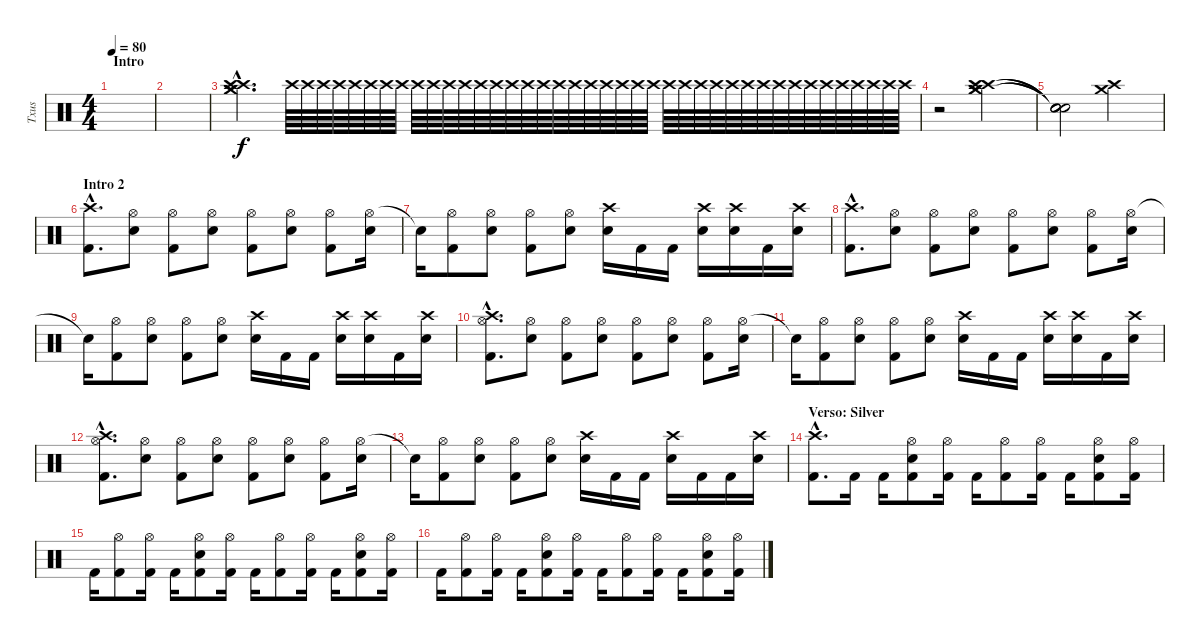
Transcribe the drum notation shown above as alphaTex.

\track ("Txus" "Txus") {instrument percussion}
\staff {score}
\articulation defaults
\ts (4 4)
\section ("" "Intro")
\tempo 80
\clef neutral
\ks c
|
|
("Crash high (hit)"{hac} "Crash medium (hit)"{hac} "Crash high (hit)"{hac} "Crash medium (hit)"{hac}).4{d} "Crash high (hit)".64{volume 4} "Crash high (hit)".64{volume 6} "Crash high (hit)".64 "Crash high (hit)".64 "Crash high (hit)".64 "Crash high (hit)".64 "Crash high (hit)".64 "Crash high (hit)".64 "Crash high (hit)".64 "Crash high (hit)".64 "Crash high (hit)".64 "Crash high (hit)".64 "Crash high (hit)".64 "Crash high (hit)".64 "Crash high (hit)".64 "Crash high (hit)".64 "Crash high (hit)".64 "Crash high (hit)".64 "Crash high (hit)".64 "Crash high (hit)".64 "Crash high (hit)".64 "Crash high (hit)".64 "Crash high (hit)".64 "Crash high (hit)".64 "Crash high (hit)".64 "Crash high (hit)".64 "Crash high (hit)".64 "Crash high (hit)".64 "Crash high (hit)".64 "Crash high (hit)".64 "Crash high (hit)".64 "Crash high (hit)".64 "Crash high (hit)".64 "Crash high (hit)".64 "Crash high (hit)".64 "Crash high (hit)".64 "Crash high (hit)".64 "Crash high (hit)".64 "Crash high (hit)".64 "Crash high (hit)".64 |
r.2 ("Crash high (hit)" "Crash medium (hit)" "Crash high (hit)" "Crash medium (hit)").2{volume 13} |
("Snare (hit)"{t} "Snare (hit)"{t} "Snare (hit)"{t} "Snare (hit)"{t}).2 ("Crash medium (hit)" "Crash high (hit)").2 |
\section ("" "Intro 2")
("Kick (hit) 2"{hac} "Crash high (hit)"{hac}).8{d} ("Hi-Hat (open)" "Electric Snare (hit)").8 ("Hi-Hat (open)" "Kick (hit) 2").8 ("Hi-Hat (open)" "Electric Snare (hit)").8 ("Hi-Hat (open)" "Kick (hit) 2").8 ("Hi-Hat (open)" "Electric Snare (hit)").8 ("Hi-Hat (open)" "Kick (hit) 2").8 ("Hi-Hat (open)" "Electric Snare (hit)").16 |
"Snare (hit)"{t}.16 ("Hi-Hat (open)" "Kick (hit) 2").8 ("Hi-Hat (open)" "Electric Snare (hit)").8 ("Hi-Hat (open)" "Kick (hit) 2").8 ("Hi-Hat (open)" "Electric Snare (hit)").8 ("Crash high (hit)" "Electric Snare (hit)").16 "Kick (hit) 2".16 "Kick (hit) 2".16 ("Electric Snare (hit)" "Crash high (hit)").16 ("Electric Snare (hit)" "Crash high (hit)").16 "Kick (hit) 2".16 ("Electric Snare (hit)" "Crash high (hit)").16 |
("Kick (hit) 2"{hac} "Crash high (hit)"{hac}).8{d} ("Hi-Hat (open)" "Electric Snare (hit)").8 ("Hi-Hat (open)" "Kick (hit) 2").8 ("Hi-Hat (open)" "Electric Snare (hit)").8 ("Hi-Hat (open)" "Kick (hit) 2").8 ("Hi-Hat (open)" "Electric Snare (hit)").8 ("Hi-Hat (open)" "Kick (hit) 2").8 ("Hi-Hat (open)" "Electric Snare (hit)").16 |
"Snare (hit)"{t}.16 ("Hi-Hat (open)" "Kick (hit) 2").8 ("Hi-Hat (open)" "Electric Snare (hit)").8 ("Hi-Hat (open)" "Kick (hit) 2").8 ("Hi-Hat (open)" "Electric Snare (hit)").8 ("Crash high (hit)" "Electric Snare (hit)").16 "Kick (hit) 2".16 "Kick (hit) 2".16 ("Electric Snare (hit)" "Crash high (hit)").16 ("Electric Snare (hit)" "Crash high (hit)").16 "Kick (hit) 2".16 ("Electric Snare (hit)" "Crash high (hit)").16 |
("Hi-Hat (open)"{hac} "Kick (hit) 2"{hac} "Crash high (hit)"{hac}).8{d} ("Hi-Hat (open)" "Electric Snare (hit)").8 ("Hi-Hat (open)" "Kick (hit) 2").8 ("Hi-Hat (open)" "Electric Snare (hit)").8 ("Hi-Hat (open)" "Kick (hit) 2").8 ("Hi-Hat (open)" "Electric Snare (hit)").8 ("Hi-Hat (open)" "Kick (hit) 2").8 ("Hi-Hat (open)" "Electric Snare (hit)").16 |
"Snare (hit)"{t}.16 ("Hi-Hat (open)" "Kick (hit) 2").8 ("Hi-Hat (open)" "Electric Snare (hit)").8 ("Hi-Hat (open)" "Kick (hit) 2").8 ("Hi-Hat (open)" "Electric Snare (hit)").8 ("Crash high (hit)" "Electric Snare (hit)").16 "Kick (hit) 2".16 "Kick (hit) 2".16 ("Electric Snare (hit)" "Crash high (hit)").16 ("Electric Snare (hit)" "Crash high (hit)").16 "Kick (hit) 2".16 ("Electric Snare (hit)" "Crash high (hit)").16 |
("Hi-Hat (open)"{hac} "Kick (hit) 2"{hac} "Crash high (hit)"{hac}).8{d} ("Hi-Hat (open)" "Electric Snare (hit)").8 ("Hi-Hat (open)" "Kick (hit) 2").8 ("Hi-Hat (open)" "Electric Snare (hit)").8 ("Hi-Hat (open)" "Kick (hit) 2").8 ("Hi-Hat (open)" "Electric Snare (hit)").8 ("Hi-Hat (open)" "Kick (hit) 2").8 ("Hi-Hat (open)" "Electric Snare (hit)").16 |
"Snare (hit)"{t}.16 ("Hi-Hat (open)" "Kick (hit) 2").8 ("Hi-Hat (open)" "Electric Snare (hit)").8 ("Hi-Hat (open)" "Kick (hit) 2").8 ("Hi-Hat (open)" "Electric Snare (hit)").8 ("Crash high (hit)" "Electric Snare (hit)").16 "Kick (hit) 2".16 "Kick (hit) 2".16 ("Electric Snare (hit)" "Crash high (hit)").16 "Kick (hit) 2".16 "Kick (hit) 2".16 ("Electric Snare (hit)" "Crash high (hit)").16 |
\section ("" "Verso: Silver")
("Kick (hit) 2"{hac} "Crash high (hit)"{hac}).8{d} "Kick (hit) 2".16 "Kick (hit) 2".16 ("Kick (hit) 2" "Hi-Hat (open)" "Electric Snare (hit)").8 ("Kick (hit) 2" "Hi-Hat (open)").16 "Kick (hit) 2".16 ("Kick (hit) 2" "Hi-Hat (open)").8 ("Kick (hit) 2" "Hi-Hat (open)").16 "Kick (hit) 2".16 ("Kick (hit) 2" "Hi-Hat (open)" "Electric Snare (hit)").8 ("Kick (hit) 2" "Hi-Hat (open)").16 |
"Kick (hit) 2".16 ("Kick (hit) 2" "Hi-Hat (open)").8 ("Kick (hit) 2" "Hi-Hat (open)").16 "Kick (hit) 2".16 ("Kick (hit) 2" "Hi-Hat (open)" "Electric Snare (hit)").8 ("Kick (hit) 2" "Hi-Hat (open)").16 "Kick (hit) 2".16 ("Kick (hit) 2" "Hi-Hat (open)").8 ("Kick (hit) 2" "Hi-Hat (open)").16 "Kick (hit) 2".16 ("Kick (hit) 2" "Hi-Hat (open)" "Electric Snare (hit)").8 ("Kick (hit) 2" "Hi-Hat (open)").16 |
"Kick (hit) 2".16 ("Kick (hit) 2" "Hi-Hat (open)").8 ("Kick (hit) 2" "Hi-Hat (open)").16 "Kick (hit) 2".16 ("Kick (hit) 2" "Hi-Hat (open)" "Electric Snare (hit)").8 ("Kick (hit) 2" "Hi-Hat (open)").16 "Kick (hit) 2".16 ("Kick (hit) 2" "Hi-Hat (open)").8 ("Kick (hit) 2" "Hi-Hat (open)").16 "Kick (hit) 2".16 ("Kick (hit) 2" "Hi-Hat (open)" "Electric Snare (hit)").8 ("Kick (hit) 2" "Hi-Hat (open)").16
